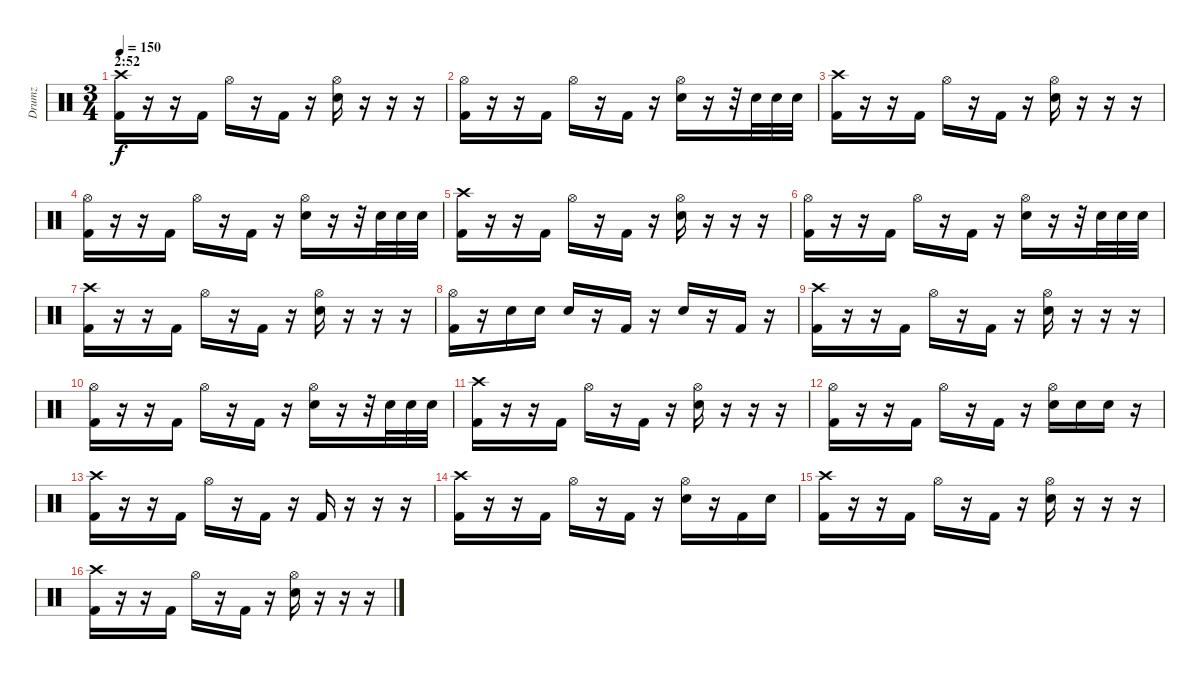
\track ("Drumz" "Drumz") {instrument percussion}
\staff {score}
\articulation defaults
\ts (3 4)
\section ("" "2:52")
\tempo 150
\clef neutral
\ks c
("Crash high (hit)" "Kick (hit) 2").16{dy f} r.16 r.16 "Kick (hit) 2".16 "Hi-Hat (open)".16 r.16 "Kick (hit) 2".16 r.16 ("Hi-Hat (open)" "Electric Snare (hit)").16 r.16 r.16 r.16 |
("Hi-Hat (open)" "Kick (hit) 2").16 r.16 r.16 "Kick (hit) 2".16 "Hi-Hat (open)".16 r.16 "Kick (hit) 2".16 r.16 ("Hi-Hat (open)" "Electric Snare (hit)").16 r.16 r.32 "Electric Snare (hit)".32 "Electric Snare (hit)".32 "Electric Snare (hit)".32 |
("Crash high (hit)" "Kick (hit) 2").16 r.16 r.16 "Kick (hit) 2".16 "Hi-Hat (open)".16 r.16 "Kick (hit) 2".16 r.16 ("Hi-Hat (open)" "Electric Snare (hit)").16 r.16 r.16 r.16 |
("Hi-Hat (open)" "Kick (hit) 2").16 r.16 r.16 "Kick (hit) 2".16 "Hi-Hat (open)".16 r.16 "Kick (hit) 2".16 r.16 ("Hi-Hat (open)" "Electric Snare (hit)").16 r.16 r.32 "Electric Snare (hit)".32 "Electric Snare (hit)".32 "Electric Snare (hit)".32 |
("Crash high (hit)" "Kick (hit) 2").16 r.16 r.16 "Kick (hit) 2".16 "Hi-Hat (open)".16 r.16 "Kick (hit) 2".16 r.16 ("Hi-Hat (open)" "Electric Snare (hit)").16 r.16 r.16 r.16 |
("Hi-Hat (open)" "Kick (hit) 2").16 r.16 r.16 "Kick (hit) 2".16 "Hi-Hat (open)".16 r.16 "Kick (hit) 2".16 r.16 ("Hi-Hat (open)" "Electric Snare (hit)").16 r.16 r.32 "Electric Snare (hit)".32 "Electric Snare (hit)".32 "Electric Snare (hit)".32 |
("Crash high (hit)" "Kick (hit) 2").16 r.16 r.16 "Kick (hit) 2".16 "Hi-Hat (open)".16 r.16 "Kick (hit) 2".16 r.16 ("Hi-Hat (open)" "Electric Snare (hit)").16 r.16 r.16 r.16 |
("Hi-Hat (open)" "Kick (hit) 2").16 r.16 "Electric Snare (hit)".16 "Electric Snare (hit)".16 "Electric Snare (hit)".16 r.16 "Kick (hit) 2".16 r.16 "Electric Snare (hit)".16 r.16 "Kick (hit) 2".16 r.16 |
("Crash high (hit)" "Kick (hit) 2").16 r.16 r.16 "Kick (hit) 2".16 "Hi-Hat (open)".16 r.16 "Kick (hit) 2".16 r.16 ("Hi-Hat (open)" "Electric Snare (hit)").16 r.16 r.16 r.16 |
("Hi-Hat (open)" "Kick (hit) 2").16 r.16 r.16 "Kick (hit) 2".16 "Hi-Hat (open)".16 r.16 "Kick (hit) 2".16 r.16 ("Hi-Hat (open)" "Electric Snare (hit)").16 r.16 r.32 "Electric Snare (hit)".32 "Electric Snare (hit)".32 "Electric Snare (hit)".32 |
("Crash high (hit)" "Kick (hit) 2").16 r.16 r.16 "Kick (hit) 2".16 "Hi-Hat (open)".16 r.16 "Kick (hit) 2".16 r.16 ("Hi-Hat (open)" "Electric Snare (hit)").16 r.16 r.16 r.16 |
("Hi-Hat (open)" "Kick (hit) 2").16 r.16 r.16 "Kick (hit) 2".16 "Hi-Hat (open)".16 r.16 "Kick (hit) 2".16 r.16 ("Hi-Hat (open)" "Electric Snare (hit)").16 "Electric Snare (hit)".16 "Electric Snare (hit)".16 r.16 |
("Crash high (hit)" "Kick (hit) 2").16 r.16 r.16 "Kick (hit) 2".16 "Hi-Hat (open)".16 r.16 "Kick (hit) 2".16 r.16 "Kick (hit) 2".16 r.16 r.16 r.16 |
("Crash high (hit)" "Kick (hit) 2").16 r.16 r.16 "Kick (hit) 2".16 "Hi-Hat (open)".16 r.16 "Kick (hit) 2".16 r.16 ("Hi-Hat (open)" "Electric Snare (hit)").16 r.16 "Kick (hit) 2".16 "Electric Snare (hit)".16 |
("Crash high (hit)" "Kick (hit) 2").16 r.16 r.16 "Kick (hit) 2".16 "Hi-Hat (open)".16 r.16 "Kick (hit) 2".16 r.16 ("Hi-Hat (open)" "Electric Snare (hit)").16 r.16 r.16 r.16 |
("Crash high (hit)" "Kick (hit) 2").16 r.16 r.16 "Kick (hit) 2".16 "Hi-Hat (open)".16 r.16 "Kick (hit) 2".16 r.16 ("Hi-Hat (open)" "Electric Snare (hit)").16 r.16 r.16 r.16
